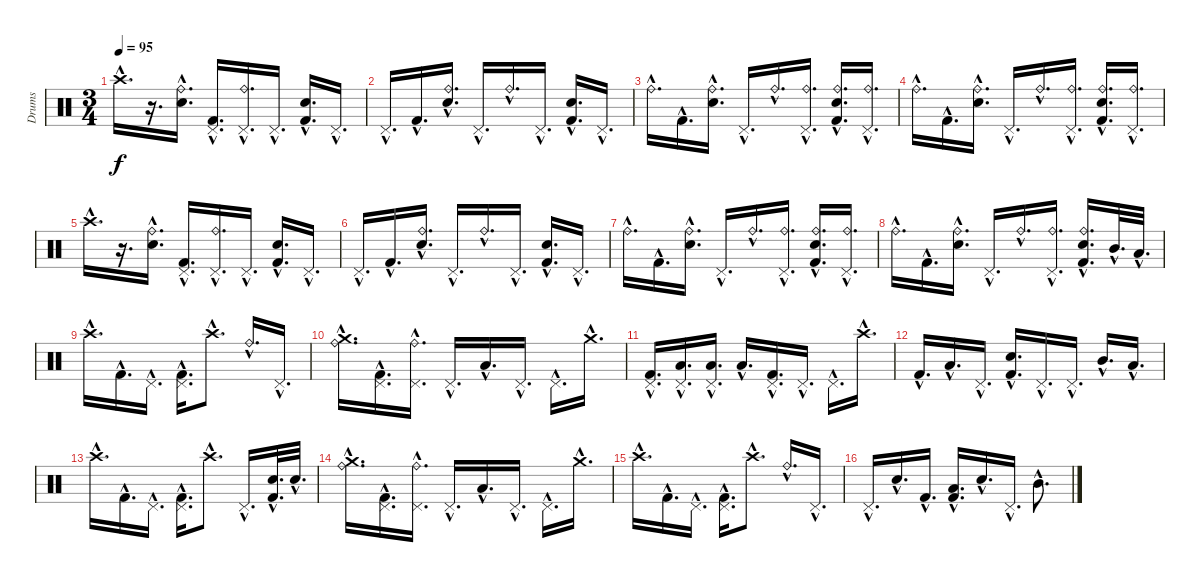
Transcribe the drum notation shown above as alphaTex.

\track ("Drums" "Drums") {instrument percussion}
\staff {score}
\articulation defaults
\ts (3 4)
\tempo 95
\clef neutral
\ks c "Crash high (hit)"{hac}.16{d dy f}
r.16{d} ("Electric Snare (hit)"{hac} "Ride (bell)"{hac}).16{d} ("Kick (hit) 2"{hac} "Pedal Hi-Hat (hit)"{hac}).16{d} ("Ride (bell)"{hac} "Pedal Hi-Hat (hit)"{hac}).16{d} "Pedal Hi-Hat (hit)"{hac}.16{d} ("Kick (hit) 2"{hac} "Electric Snare (hit)"{hac}).16{d} "Pedal Hi-Hat (hit)"{hac}.16{d} |
"Pedal Hi-Hat (hit)"{hac}.16{d} "Kick (hit) 2"{hac}.16{d} ("Electric Snare (hit)"{hac} "Ride (bell)"{hac}).16{d} "Pedal Hi-Hat (hit)"{hac}.16{d} "Ride (bell)"{hac}.16{d} "Pedal Hi-Hat (hit)"{hac}.16{d} ("Kick (hit) 2"{hac} "Electric Snare (hit)"{hac}).16{d} "Pedal Hi-Hat (hit)"{hac}.16{d} |
"Ride (bell)"{hac}.16{d} "Kick (hit) 2"{hac}.16{d} ("Electric Snare (hit)"{hac} "Ride (bell)"{hac}).16{d} "Pedal Hi-Hat (hit)"{hac}.16{d} "Ride (bell)"{hac}.16{d} ("Ride (bell)"{hac} "Pedal Hi-Hat (hit)"{hac}).16{d} ("Kick (hit) 2"{hac} "Electric Snare (hit)"{hac} "Ride (bell)"{hac}).16{d} ("Ride (bell)"{hac} "Pedal Hi-Hat (hit)"{hac}).16{d} |
"Ride (bell)"{hac}.16{d} "Kick (hit) 2"{hac}.16{d} ("Electric Snare (hit)"{hac} "Ride (bell)"{hac}).16{d} "Pedal Hi-Hat (hit)"{hac}.16{d} "Ride (bell)"{hac}.16{d} ("Ride (bell)"{hac} "Pedal Hi-Hat (hit)"{hac}).16{d} ("Kick (hit) 2"{hac} "Electric Snare (hit)"{hac} "Ride (bell)"{hac}).16{d} ("Ride (bell)"{hac} "Pedal Hi-Hat (hit)"{hac}).16{d} |
"Crash high (hit)"{hac}.16{d} r.16{d} ("Electric Snare (hit)"{hac} "Ride (bell)"{hac}).16{d} ("Kick (hit) 2"{hac} "Pedal Hi-Hat (hit)"{hac}).16{d} ("Ride (bell)"{hac} "Pedal Hi-Hat (hit)"{hac}).16{d} "Pedal Hi-Hat (hit)"{hac}.16{d} ("Kick (hit) 2"{hac} "Electric Snare (hit)"{hac}).16{d} "Pedal Hi-Hat (hit)"{hac}.16{d} |
"Pedal Hi-Hat (hit)"{hac}.16{d} "Kick (hit) 2"{hac}.16{d} ("Electric Snare (hit)"{hac} "Ride (bell)"{hac}).16{d} "Pedal Hi-Hat (hit)"{hac}.16{d} "Ride (bell)"{hac}.16{d} "Pedal Hi-Hat (hit)"{hac}.16{d} ("Kick (hit) 2"{hac} "Electric Snare (hit)"{hac}).16{d} "Pedal Hi-Hat (hit)"{hac}.16{d} |
"Ride (bell)"{hac}.16{d} "Kick (hit) 2"{hac}.16{d} ("Electric Snare (hit)"{hac} "Ride (bell)"{hac}).16{d} "Pedal Hi-Hat (hit)"{hac}.16{d} "Ride (bell)"{hac}.16{d} ("Ride (bell)"{hac} "Pedal Hi-Hat (hit)"{hac}).16{d} ("Kick (hit) 2"{hac} "Electric Snare (hit)"{hac} "Ride (bell)"{hac}).16{d} ("Ride (bell)"{hac} "Pedal Hi-Hat (hit)"{hac}).16{d} |
"Ride (bell)"{hac}.16{d} "Kick (hit) 2"{hac}.16{d} ("Electric Snare (hit)"{hac} "Ride (bell)"{hac}).16{d} "Pedal Hi-Hat (hit)"{hac}.16{d} "Ride (bell)"{hac}.16{d} ("Ride (bell)"{hac} "Pedal Hi-Hat (hit)"{hac}).16{d} ("Kick (hit) 2"{hac} "Electric Snare (hit)"{hac} "Ride (bell)"{hac}).16{d} "Mid Tom (hit)"{hac}.32{d} "Low Tom (hit)"{hac}.32{d} |
"Crash high (hit)"{hac}.16{d} "Kick (hit) 2"{hac}.16{d} "Pedal Hi-Hat (hit)"{hac}.16{d} ("Kick (hit) 2"{hac} "Pedal Hi-Hat (hit)"{hac}).16{d} "Crash high (hit)"{hac}.8{d} "Ride (bell)"{hac}.16{d} "Pedal Hi-Hat (hit)"{hac}.16{d} |
("Crash medium (hit)"{hac} "Ride (bell)"{hac}).16{d} ("Kick (hit) 2"{hac} "Pedal Hi-Hat (hit)"{hac}).16{d} ("Pedal Hi-Hat (hit)"{hac} "Ride (bell)"{hac}).16{d} "Pedal Hi-Hat (hit)"{hac}.16{d} "Low Tom (hit)"{hac}.16{d} "Pedal Hi-Hat (hit)"{hac}.16{d} "Pedal Hi-Hat (hit)"{hac}.16{d} "Crash medium (hit)"{hac}.16{d} |
("Kick (hit) 2"{hac} "Pedal Hi-Hat (hit)"{hac}).16{d} ("Low Floor Tom (hit)"{hac} "Pedal Hi-Hat (hit)"{hac}).16{d} ("Low Floor Tom (hit)"{hac} "Pedal Hi-Hat (hit)"{hac}).16{d} "Low Tom (hit)"{hac}.16{d} ("Kick (hit) 2"{hac} "Pedal Hi-Hat (hit)"{hac}).16{d} "Pedal Hi-Hat (hit)"{hac}.16{d} "Pedal Hi-Hat (hit)"{hac}.16{d} "Crash high (hit)"{hac}.16{d} |
"Kick (hit) 2"{hac}.16{d} "Low Floor Tom (hit)"{hac}.16{d} "Pedal Hi-Hat (hit)"{hac}.16{d} ("Kick (hit) 2"{hac} "Electric Snare (hit)"{hac}).16{d} "Pedal Hi-Hat (hit)"{hac}.16{d} "Pedal Hi-Hat (hit)"{hac}.16{d} "Mid Tom (hit)"{hac}.16{d} "Low Tom (hit)"{hac}.16{d} |
"Crash high (hit)"{hac}.16{d} "Kick (hit) 2"{hac}.16{d} "Pedal Hi-Hat (hit)"{hac}.16{d} ("Kick (hit) 2"{hac} "Pedal Hi-Hat (hit)"{hac}).16{d} "Crash high (hit)"{hac}.8{d} "Pedal Hi-Hat (hit)"{hac}.16{d} ("Kick (hit) 2"{hac} "Electric Snare (hit)"{hac}).32{d} "Electric Snare (hit)"{hac}.32{d} |
("Crash medium (hit)"{hac} "Ride (bell)"{hac}).16{d} ("Kick (hit) 2"{hac} "Pedal Hi-Hat (hit)"{hac}).16{d} ("Pedal Hi-Hat (hit)"{hac} "Ride (bell)"{hac}).16{d} "Pedal Hi-Hat (hit)"{hac}.16{d} "Low Tom (hit)"{hac}.16{d} "Pedal Hi-Hat (hit)"{hac}.16{d} "Pedal Hi-Hat (hit)"{hac}.16{d} "Crash medium (hit)"{hac}.16{d} |
"Crash high (hit)"{hac}.16{d} "Kick (hit) 2"{hac}.16{d} "Pedal Hi-Hat (hit)"{hac}.16{d} ("Kick (hit) 2"{hac} "Pedal Hi-Hat (hit)"{hac}).16{d} "Crash high (hit)"{hac}.8{d} "Ride (bell)"{hac}.16{d} "Pedal Hi-Hat (hit)"{hac}.16{d} |
"Pedal Hi-Hat (hit)"{hac}.16{d} "Electric Snare (hit)"{hac}.16{d} "Kick (hit) 2"{hac}.16{d} ("Kick (hit) 2"{hac} "Low Tom (hit)"{hac}).16{d} "Electric Snare (hit)"{hac}.16{d} "Pedal Hi-Hat (hit)"{hac}.16{d} "Mid Tom (hit)"{hac}.8{d}
